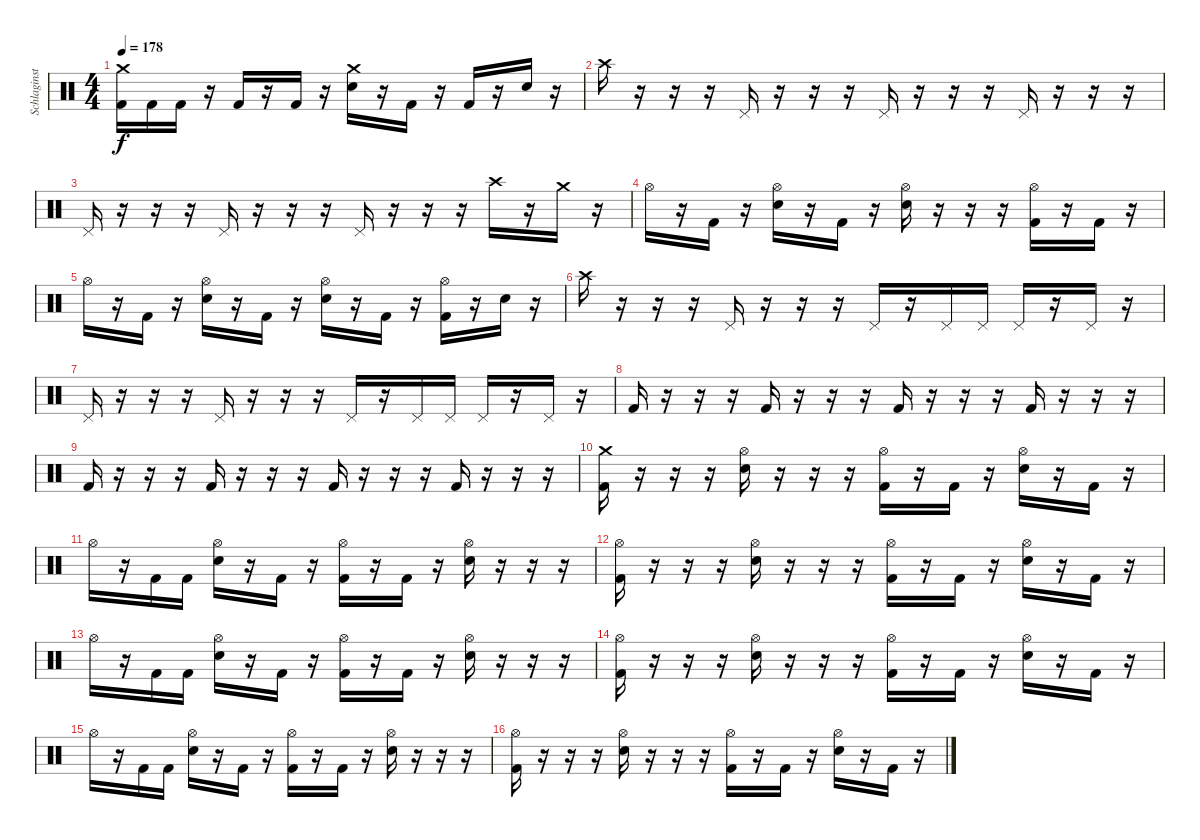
\track ("Schlaginstrumente - Auswahl" "Schlaginst") {instrument percussion}
\staff {score}
\articulation defaults
\ts (4 4)
\tempo 178
\clef neutral
\ks c
("Crash medium (hit)" "Kick (hit) 2").16{dy f} "Kick (hit) 2".16 "Kick (hit) 2".16 r.16 "Kick (hit) 2".16 r.16 "Kick (hit) 2".16 r.16 ("Crash medium (hit)" "Snare (hit) 2").16 r.16 "Kick (hit) 2".16 r.16 "Kick (hit) 2".16 r.16 "Snare (hit) 2".16 r.16 |
"Crash high (hit)".16 r.16 r.16 r.16 "Pedal Hi-Hat (hit)".16 r.16 r.16 r.16 "Pedal Hi-Hat (hit)".16 r.16 r.16 r.16 "Pedal Hi-Hat (hit)".16 r.16 r.16 r.16 |
"Pedal Hi-Hat (hit)".16 r.16 r.16 r.16 "Pedal Hi-Hat (hit)".16 r.16 r.16 r.16 "Pedal Hi-Hat (hit)".16 r.16 r.16 r.16 "Crash high (hit)".16 r.16 "Crash medium (hit)".16 r.16 |
"Hi-Hat (open)".16 r.16 "Kick (hit) 2".16 r.16 ("Hi-Hat (open)" "Snare (hit) 2").16 r.16 "Kick (hit) 2".16 r.16 ("Hi-Hat (open)" "Snare (hit) 2").16 r.16 r.16 r.16 ("Hi-Hat (open)" "Kick (hit) 2").16 r.16 "Kick (hit) 2".16 r.16 |
"Hi-Hat (open)".16 r.16 "Kick (hit) 2".16 r.16 ("Hi-Hat (open)" "Snare (hit) 2").16 r.16 "Kick (hit) 2".16 r.16 ("Hi-Hat (open)" "Snare (hit) 2").16 r.16 "Kick (hit) 2".16 r.16 ("Hi-Hat (open)" "Kick (hit) 2").16 r.16 "Snare (hit) 2".16 r.16 |
"Crash high (hit)".16 r.16 r.16 r.16 "Pedal Hi-Hat (hit)".16 r.16 r.16 r.16 "Pedal Hi-Hat (hit)".16 r.16 "Pedal Hi-Hat (hit)".16 "Pedal Hi-Hat (hit)".16 "Pedal Hi-Hat (hit)".16 r.16 "Pedal Hi-Hat (hit)".16 r.16 |
"Pedal Hi-Hat (hit)".16 r.16 r.16 r.16 "Pedal Hi-Hat (hit)".16 r.16 r.16 r.16 "Pedal Hi-Hat (hit)".16 r.16 "Pedal Hi-Hat (hit)".16 "Pedal Hi-Hat (hit)".16 "Pedal Hi-Hat (hit)".16 r.16 "Pedal Hi-Hat (hit)".16 r.16 |
"Kick (hit) 2".16 r.16 r.16 r.16 "Kick (hit) 2".16 r.16 r.16 r.16 "Kick (hit) 2".16 r.16 r.16 r.16 "Kick (hit) 2".16 r.16 r.16 r.16 |
"Kick (hit) 2".16 r.16 r.16 r.16 "Kick (hit) 2".16 r.16 r.16 r.16 "Kick (hit) 2".16 r.16 r.16 r.16 "Kick (hit) 2".16 r.16 r.16 r.16 |
("Crash medium (hit)" "Kick (hit) 2").16 r.16 r.16 r.16 ("Hi-Hat (open)" "Snare (hit) 2").16 r.16 r.16 r.16 ("Hi-Hat (open)" "Kick (hit) 2").16 r.16 "Kick (hit) 2".16 r.16 ("Hi-Hat (open)" "Snare (hit) 2").16 r.16 "Kick (hit) 2".16 r.16 |
"Hi-Hat (open)".16 r.16 "Kick (hit) 2".16 "Kick (hit) 2".16 ("Hi-Hat (open)" "Snare (hit) 2").16 r.16 "Kick (hit) 2".16 r.16 ("Hi-Hat (open)" "Kick (hit) 2").16 r.16 "Kick (hit) 2".16 r.16 ("Hi-Hat (open)" "Snare (hit) 2").16 r.16 r.16 r.16 |
("Hi-Hat (open)" "Kick (hit) 2").16 r.16 r.16 r.16 ("Hi-Hat (open)" "Snare (hit) 2").16 r.16 r.16 r.16 ("Hi-Hat (open)" "Kick (hit) 2").16 r.16 "Kick (hit) 2".16 r.16 ("Hi-Hat (open)" "Snare (hit) 2").16 r.16 "Kick (hit) 2".16 r.16 |
"Hi-Hat (open)".16 r.16 "Kick (hit) 2".16 "Kick (hit) 2".16 ("Hi-Hat (open)" "Snare (hit) 2").16 r.16 "Kick (hit) 2".16 r.16 ("Hi-Hat (open)" "Kick (hit) 2").16 r.16 "Kick (hit) 2".16 r.16 ("Hi-Hat (open)" "Snare (hit) 2").16 r.16 r.16 r.16 |
("Hi-Hat (open)" "Kick (hit) 2").16 r.16 r.16 r.16 ("Hi-Hat (open)" "Snare (hit) 2").16 r.16 r.16 r.16 ("Hi-Hat (open)" "Kick (hit) 2").16 r.16 "Kick (hit) 2".16 r.16 ("Hi-Hat (open)" "Snare (hit) 2").16 r.16 "Kick (hit) 2".16 r.16 |
"Hi-Hat (open)".16 r.16 "Kick (hit) 2".16 "Kick (hit) 2".16 ("Hi-Hat (open)" "Snare (hit) 2").16 r.16 "Kick (hit) 2".16 r.16 ("Hi-Hat (open)" "Kick (hit) 2").16 r.16 "Kick (hit) 2".16 r.16 ("Hi-Hat (open)" "Snare (hit) 2").16 r.16 r.16 r.16 |
("Hi-Hat (open)" "Kick (hit) 2").16 r.16 r.16 r.16 ("Hi-Hat (open)" "Snare (hit) 2").16 r.16 r.16 r.16 ("Hi-Hat (open)" "Kick (hit) 2").16 r.16 "Kick (hit) 2".16 r.16 ("Hi-Hat (open)" "Snare (hit) 2").16 r.16 "Kick (hit) 2".16 r.16
